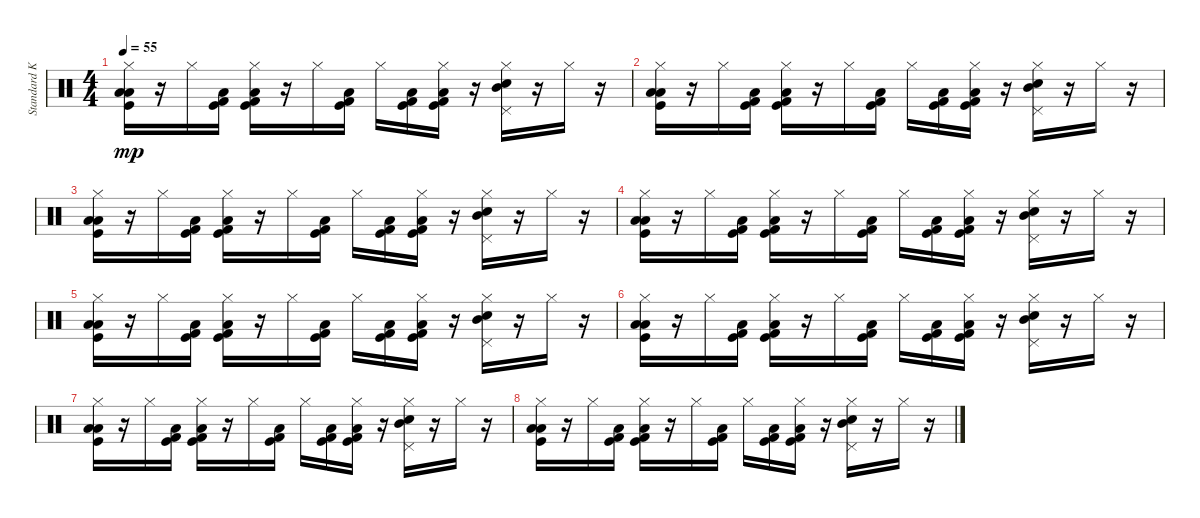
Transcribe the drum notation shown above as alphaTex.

\track ("Standard Kit" "Standard K") {instrument percussion}
\staff {score}
\articulation defaults
\ts (4 4)
\tempo 55
\clef neutral
\ks c
("Kick (hit)" "Low Floor Tom (hit)" "Low Floor Tom (hit)" "Hi-Hat (closed)").16{dy mp} r.16 "Hi-Hat (closed)".16 ("Kick (hit)" "Kick (hit) 2" "Low Floor Tom (hit)").16 ("Kick (hit)" "Kick (hit) 2" "Low Floor Tom (hit)" "Hi-Hat (closed)").16 r.16 "Hi-Hat (closed)".16 ("Kick (hit)" "Kick (hit) 2" "Low Floor Tom (hit)").16 "Hi-Hat (closed)".16 ("Kick (hit)" "Kick (hit) 2" "Low Floor Tom (hit)").16 ("Kick (hit)" "Kick (hit) 2" "Low Floor Tom (hit)" "Hi-Hat (closed)").16 r.16 ("Electric Snare (hit)" "Pedal Hi-Hat (hit)" "Mid Tom (hit)" "Hi-Hat (closed)").16 r.16 "Hi-Hat (closed)".16 r.16 |
("Kick (hit)" "Low Floor Tom (hit)" "Low Floor Tom (hit)" "Hi-Hat (closed)").16 r.16 "Hi-Hat (closed)".16 ("Kick (hit)" "Kick (hit) 2" "Low Floor Tom (hit)").16 ("Kick (hit)" "Kick (hit) 2" "Low Floor Tom (hit)" "Hi-Hat (closed)").16 r.16 "Hi-Hat (closed)".16 ("Kick (hit)" "Kick (hit) 2" "Low Floor Tom (hit)").16 "Hi-Hat (closed)".16 ("Kick (hit)" "Kick (hit) 2" "Low Floor Tom (hit)").16 ("Kick (hit)" "Kick (hit) 2" "Low Floor Tom (hit)" "Hi-Hat (closed)").16 r.16 ("Electric Snare (hit)" "Pedal Hi-Hat (hit)" "Mid Tom (hit)" "Hi-Hat (closed)").16 r.16 "Hi-Hat (closed)".16 r.16 |
("Kick (hit)" "Low Floor Tom (hit)" "Low Floor Tom (hit)" "Hi-Hat (closed)").16 r.16 "Hi-Hat (closed)".16 ("Kick (hit)" "Kick (hit) 2" "Low Floor Tom (hit)").16 ("Kick (hit)" "Kick (hit) 2" "Low Floor Tom (hit)" "Hi-Hat (closed)").16 r.16 "Hi-Hat (closed)".16 ("Kick (hit)" "Kick (hit) 2" "Low Floor Tom (hit)").16 "Hi-Hat (closed)".16 ("Kick (hit)" "Kick (hit) 2" "Low Floor Tom (hit)").16 ("Kick (hit)" "Kick (hit) 2" "Low Floor Tom (hit)" "Hi-Hat (closed)").16 r.16 ("Electric Snare (hit)" "Pedal Hi-Hat (hit)" "Mid Tom (hit)" "Hi-Hat (closed)").16 r.16 "Hi-Hat (closed)".16 r.16 |
("Kick (hit)" "Low Floor Tom (hit)" "Low Floor Tom (hit)" "Hi-Hat (closed)").16 r.16 "Hi-Hat (closed)".16 ("Kick (hit)" "Kick (hit) 2" "Low Floor Tom (hit)").16 ("Kick (hit)" "Kick (hit) 2" "Low Floor Tom (hit)" "Hi-Hat (closed)").16 r.16 "Hi-Hat (closed)".16 ("Kick (hit)" "Kick (hit) 2" "Low Floor Tom (hit)").16 "Hi-Hat (closed)".16 ("Kick (hit)" "Kick (hit) 2" "Low Floor Tom (hit)").16 ("Kick (hit)" "Kick (hit) 2" "Low Floor Tom (hit)" "Hi-Hat (closed)").16 r.16 ("Electric Snare (hit)" "Pedal Hi-Hat (hit)" "Mid Tom (hit)" "Hi-Hat (closed)").16 r.16 "Hi-Hat (closed)".16 r.16 |
("Kick (hit)" "Low Floor Tom (hit)" "Low Floor Tom (hit)" "Hi-Hat (closed)").16 r.16 "Hi-Hat (closed)".16 ("Kick (hit)" "Kick (hit) 2" "Low Floor Tom (hit)").16 ("Kick (hit)" "Kick (hit) 2" "Low Floor Tom (hit)" "Hi-Hat (closed)").16 r.16 "Hi-Hat (closed)".16 ("Kick (hit)" "Kick (hit) 2" "Low Floor Tom (hit)").16 "Hi-Hat (closed)".16 ("Kick (hit)" "Kick (hit) 2" "Low Floor Tom (hit)").16 ("Kick (hit)" "Kick (hit) 2" "Low Floor Tom (hit)" "Hi-Hat (closed)").16 r.16 ("Electric Snare (hit)" "Pedal Hi-Hat (hit)" "Mid Tom (hit)" "Hi-Hat (closed)").16 r.16 "Hi-Hat (closed)".16 r.16 |
("Kick (hit)" "Low Floor Tom (hit)" "Low Floor Tom (hit)" "Hi-Hat (closed)").16 r.16 "Hi-Hat (closed)".16 ("Kick (hit)" "Kick (hit) 2" "Low Floor Tom (hit)").16 ("Kick (hit)" "Kick (hit) 2" "Low Floor Tom (hit)" "Hi-Hat (closed)").16 r.16 "Hi-Hat (closed)".16 ("Kick (hit)" "Kick (hit) 2" "Low Floor Tom (hit)").16 "Hi-Hat (closed)".16 ("Kick (hit)" "Kick (hit) 2" "Low Floor Tom (hit)").16 ("Kick (hit)" "Kick (hit) 2" "Low Floor Tom (hit)" "Hi-Hat (closed)").16 r.16 ("Electric Snare (hit)" "Pedal Hi-Hat (hit)" "Mid Tom (hit)" "Hi-Hat (closed)").16 r.16 "Hi-Hat (closed)".16 r.16 |
("Kick (hit)" "Low Floor Tom (hit)" "Low Floor Tom (hit)" "Hi-Hat (closed)").16 r.16 "Hi-Hat (closed)".16 ("Kick (hit)" "Kick (hit) 2" "Low Floor Tom (hit)").16 ("Kick (hit)" "Kick (hit) 2" "Low Floor Tom (hit)" "Hi-Hat (closed)").16 r.16 "Hi-Hat (closed)".16 ("Kick (hit)" "Kick (hit) 2" "Low Floor Tom (hit)").16 "Hi-Hat (closed)".16 ("Kick (hit)" "Kick (hit) 2" "Low Floor Tom (hit)").16 ("Kick (hit)" "Kick (hit) 2" "Low Floor Tom (hit)" "Hi-Hat (closed)").16 r.16 ("Electric Snare (hit)" "Pedal Hi-Hat (hit)" "Mid Tom (hit)" "Hi-Hat (closed)").16 r.16 "Hi-Hat (closed)".16 r.16 |
("Kick (hit)" "Low Floor Tom (hit)" "Low Floor Tom (hit)" "Hi-Hat (closed)").16 r.16 "Hi-Hat (closed)".16 ("Kick (hit)" "Kick (hit) 2" "Low Floor Tom (hit)").16 ("Kick (hit)" "Kick (hit) 2" "Low Floor Tom (hit)" "Hi-Hat (closed)").16 r.16 "Hi-Hat (closed)".16 ("Kick (hit)" "Kick (hit) 2" "Low Floor Tom (hit)").16 "Hi-Hat (closed)".16 ("Kick (hit)" "Kick (hit) 2" "Low Floor Tom (hit)").16 ("Kick (hit)" "Kick (hit) 2" "Low Floor Tom (hit)" "Hi-Hat (closed)").16 r.16 ("Electric Snare (hit)" "Pedal Hi-Hat (hit)" "Mid Tom (hit)" "Hi-Hat (closed)").16 r.16 "Hi-Hat (closed)".16 r.16
